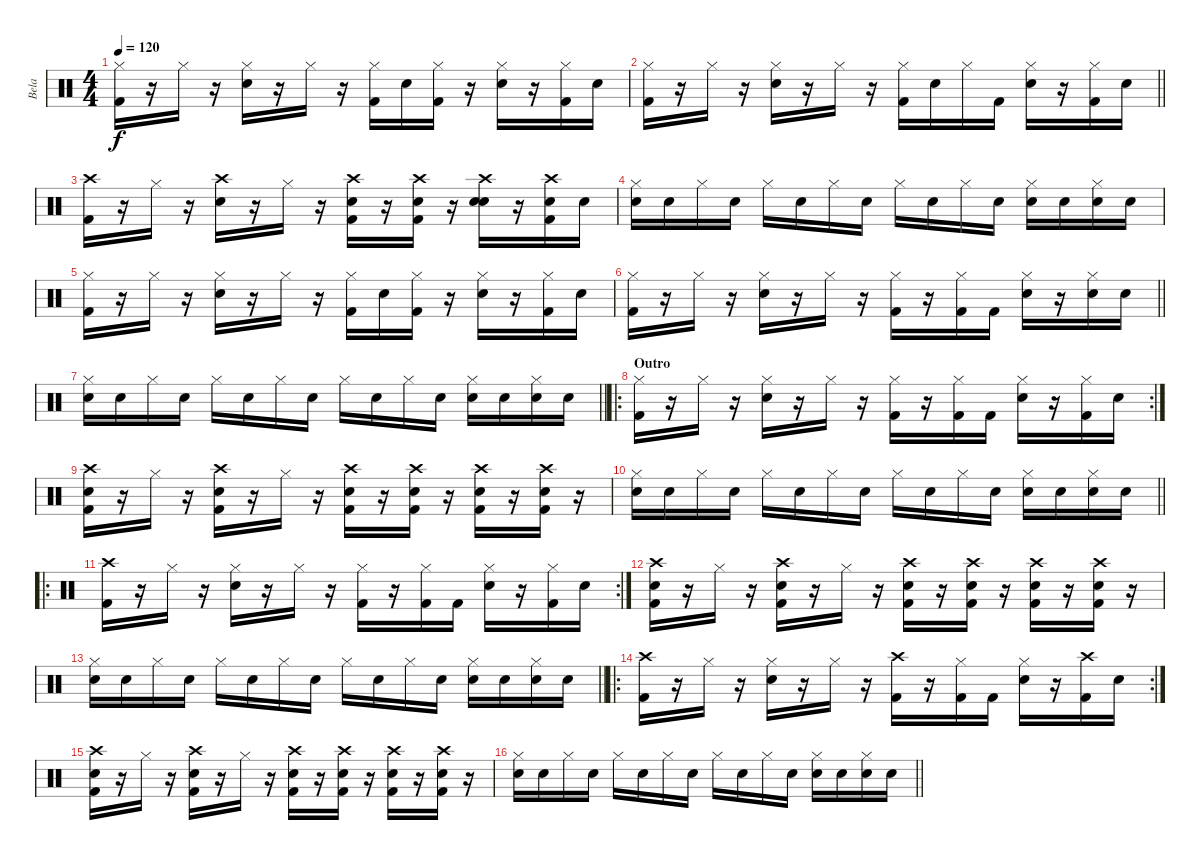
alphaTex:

\track ("Bela" "Bela") {instrument percussion}
\staff {score}
\articulation defaults
\ts (4 4)
\tempo 120
\clef neutral
\ks c
("Hi-Hat (closed)" "Kick (hit) 2").16{dy f} r.16 "Hi-Hat (closed)".16 r.16 ("Hi-Hat (closed)" "Electric Snare (hit)").16 r.16 "Hi-Hat (closed)".16 r.16 ("Hi-Hat (closed)" "Kick (hit) 2").16 "Electric Snare (hit)".16 ("Hi-Hat (closed)" "Kick (hit) 2").16 r.16 ("Hi-Hat (closed)" "Electric Snare (hit)").16 r.16 ("Hi-Hat (closed)" "Kick (hit) 2").16 "Electric Snare (hit)".16 |
\barLineRight lightlight
("Hi-Hat (closed)" "Kick (hit) 2").16 r.16 "Hi-Hat (closed)".16 r.16 ("Hi-Hat (closed)" "Electric Snare (hit)").16 r.16 "Hi-Hat (closed)".16 r.16 ("Hi-Hat (closed)" "Kick (hit) 2").16 "Snare (hit) 2".16 "Hi-Hat (closed)".16 "Kick (hit) 2".16 ("Hi-Hat (closed)" "Electric Snare (hit)").16 r.16 ("Hi-Hat (closed)" "Kick (hit) 2").16 "Electric Snare (hit)".16 |
("Crash high (hit)" "Kick (hit) 2").16 r.16 "Hi-Hat (closed)".16 r.16 ("Crash high (hit)" "Electric Snare (hit)").16 r.16 "Hi-Hat (closed)".16 r.16 ("Crash high (hit)" "Kick (hit) 2" "Electric Snare (hit)").16 r.16 ("Crash high (hit)" "Kick (hit) 2" "Electric Snare (hit)").16 r.16 ("Crash high (hit)" "Electric Snare (hit)" "Snare (hit) 2").16 r.16 ("Crash high (hit)" "Kick (hit) 2" "Electric Snare (hit)").16 "Electric Snare (hit)".16 |
("Hi-Hat (closed)" "Electric Snare (hit)").16 "Snare (hit) 2".16 "Hi-Hat (closed)".16 "Electric Snare (hit)".16 "Hi-Hat (closed)".16 "Electric Snare (hit)".16 "Hi-Hat (closed)".16 "Electric Snare (hit)".16 "Hi-Hat (closed)".16 "Electric Snare (hit)".16 "Hi-Hat (closed)".16 "Electric Snare (hit)".16 ("Hi-Hat (closed)" "Electric Snare (hit)").16 "Electric Snare (hit)".16 ("Hi-Hat (closed)" "Electric Snare (hit)").16 "Electric Snare (hit)".16 |
("Hi-Hat (closed)" "Kick (hit) 2").16 r.16 "Hi-Hat (closed)".16 r.16 ("Hi-Hat (closed)" "Electric Snare (hit)").16 r.16 "Hi-Hat (closed)".16 r.16 ("Hi-Hat (closed)" "Kick (hit) 2").16 "Electric Snare (hit)".16 ("Hi-Hat (closed)" "Kick (hit) 2").16 r.16 ("Hi-Hat (closed)" "Electric Snare (hit)").16 r.16 ("Hi-Hat (closed)" "Kick (hit) 2").16 "Electric Snare (hit)".16 |
\barLineRight lightlight
("Hi-Hat (closed)" "Kick (hit) 2").16 r.16 "Hi-Hat (closed)".16 r.16 ("Hi-Hat (closed)" "Electric Snare (hit)").16 r.16 "Hi-Hat (closed)".16 r.16 ("Hi-Hat (closed)" "Kick (hit) 2").16 r.16 ("Hi-Hat (closed)" "Kick (hit) 2").16 "Kick (hit) 2".16 ("Hi-Hat (closed)" "Electric Snare (hit)").16 r.16 ("Hi-Hat (closed)" "Electric Snare (hit)").16 "Electric Snare (hit)".16 |
\barLineRight lightlight
("Hi-Hat (closed)" "Electric Snare (hit)").16 "Snare (hit) 2".16 "Hi-Hat (closed)".16 "Electric Snare (hit)".16 "Hi-Hat (closed)".16 "Electric Snare (hit)".16 "Hi-Hat (closed)".16 "Electric Snare (hit)".16 "Hi-Hat (closed)".16 "Electric Snare (hit)".16 "Hi-Hat (closed)".16 "Electric Snare (hit)".16 ("Hi-Hat (closed)" "Electric Snare (hit)").16 "Electric Snare (hit)".16 ("Hi-Hat (closed)" "Electric Snare (hit)").16 "Electric Snare (hit)".16 |
\ro
\rc 2
\section ("" "Outro")
("Hi-Hat (closed)" "Kick (hit) 2").16 r.16 "Hi-Hat (closed)".16 r.16 ("Hi-Hat (closed)" "Electric Snare (hit)").16 r.16 "Hi-Hat (closed)".16 r.16 ("Hi-Hat (closed)" "Kick (hit) 2").16 r.16 ("Hi-Hat (closed)" "Kick (hit) 2").16 "Kick (hit) 2".16 ("Hi-Hat (closed)" "Electric Snare (hit)").16 r.16 ("Hi-Hat (closed)" "Kick (hit) 2").16 "Electric Snare (hit)".16 |
("Electric Snare (hit)" "Kick (hit) 2" "Crash high (hit)").16 r.16 "Hi-Hat (closed)".16 r.16 ("Electric Snare (hit)" "Kick (hit) 2" "Crash high (hit)").16 r.16 "Hi-Hat (closed)".16 r.16 ("Snare (hit) 2" "Kick (hit) 2" "Crash high (hit)").16 r.16 ("Snare (hit) 2" "Kick (hit) 2" "Crash high (hit)").16 r.16 ("Electric Snare (hit)" "Kick (hit) 2" "Crash high (hit)").16 r.16 ("Electric Snare (hit)" "Kick (hit) 2" "Crash high (hit)").16 r.16 |
\barLineRight lightlight
("Hi-Hat (closed)" "Electric Snare (hit)").16 "Snare (hit) 2".16 "Hi-Hat (closed)".16 "Electric Snare (hit)".16 "Hi-Hat (closed)".16 "Electric Snare (hit)".16 "Hi-Hat (closed)".16 "Electric Snare (hit)".16 "Hi-Hat (closed)".16 "Electric Snare (hit)".16 "Hi-Hat (closed)".16 "Electric Snare (hit)".16 ("Hi-Hat (closed)" "Electric Snare (hit)").16 "Electric Snare (hit)".16 ("Hi-Hat (closed)" "Electric Snare (hit)").16 "Electric Snare (hit)".16 |
\ro
\rc 2
("Crash high (hit)" "Kick (hit) 2").16 r.16 "Hi-Hat (closed)".16 r.16 ("Hi-Hat (closed)" "Electric Snare (hit)").16 r.16 "Hi-Hat (closed)".16 r.16 ("Hi-Hat (closed)" "Kick (hit) 2").16 r.16 ("Hi-Hat (closed)" "Kick (hit) 2").16 "Kick (hit) 2".16 ("Hi-Hat (closed)" "Electric Snare (hit)").16 r.16 ("Hi-Hat (closed)" "Kick (hit) 2").16 "Electric Snare (hit)".16 |
("Electric Snare (hit)" "Kick (hit) 2" "Crash high (hit)").16 r.16 "Hi-Hat (closed)".16 r.16 ("Electric Snare (hit)" "Kick (hit) 2" "Crash high (hit)").16 r.16 "Hi-Hat (closed)".16 r.16 ("Snare (hit) 2" "Kick (hit) 2" "Crash high (hit)").16 r.16 ("Snare (hit) 2" "Kick (hit) 2" "Crash high (hit)").16 r.16 ("Electric Snare (hit)" "Kick (hit) 2" "Crash high (hit)").16 r.16 ("Electric Snare (hit)" "Kick (hit) 2" "Crash high (hit)").16 r.16 |
\barLineRight lightlight
("Hi-Hat (closed)" "Electric Snare (hit)").16 "Snare (hit) 2".16 "Hi-Hat (closed)".16 "Electric Snare (hit)".16 "Hi-Hat (closed)".16 "Electric Snare (hit)".16 "Hi-Hat (closed)".16 "Electric Snare (hit)".16 "Hi-Hat (closed)".16 "Electric Snare (hit)".16 "Hi-Hat (closed)".16 "Electric Snare (hit)".16 ("Hi-Hat (closed)" "Electric Snare (hit)").16 "Electric Snare (hit)".16 ("Hi-Hat (closed)" "Electric Snare (hit)").16 "Electric Snare (hit)".16 |
\ro
\rc 2
("Crash high (hit)" "Kick (hit) 2").16 r.16 "Hi-Hat (closed)".16 r.16 ("Hi-Hat (closed)" "Electric Snare (hit)").16 r.16 "Hi-Hat (closed)".16 r.16 ("Crash high (hit)" "Kick (hit) 2").16 r.16 ("Hi-Hat (closed)" "Kick (hit) 2").16 "Kick (hit) 2".16 ("Hi-Hat (closed)" "Electric Snare (hit)").16 r.16 ("Crash high (hit)" "Kick (hit) 2").16 "Electric Snare (hit)".16 |
("Electric Snare (hit)" "Kick (hit) 2" "Crash high (hit)").16 r.16 "Hi-Hat (closed)".16 r.16 ("Electric Snare (hit)" "Kick (hit) 2" "Crash high (hit)").16 r.16 "Hi-Hat (closed)".16 r.16 ("Snare (hit) 2" "Kick (hit) 2" "Crash high (hit)").16 r.16 ("Snare (hit) 2" "Kick (hit) 2" "Crash high (hit)").16 r.16 ("Electric Snare (hit)" "Kick (hit) 2" "Crash high (hit)").16 r.16 ("Electric Snare (hit)" "Kick (hit) 2" "Crash high (hit)").16 r.16 |
\barLineRight lightlight
("Hi-Hat (closed)" "Electric Snare (hit)").16 "Snare (hit) 2".16 "Hi-Hat (closed)".16 "Electric Snare (hit)".16 "Hi-Hat (closed)".16 "Electric Snare (hit)".16 "Hi-Hat (closed)".16 "Electric Snare (hit)".16 "Hi-Hat (closed)".16 "Electric Snare (hit)".16 "Hi-Hat (closed)".16 "Electric Snare (hit)".16 ("Hi-Hat (closed)" "Electric Snare (hit)").16 "Electric Snare (hit)".16 ("Hi-Hat (closed)" "Electric Snare (hit)").16 "Electric Snare (hit)".16
